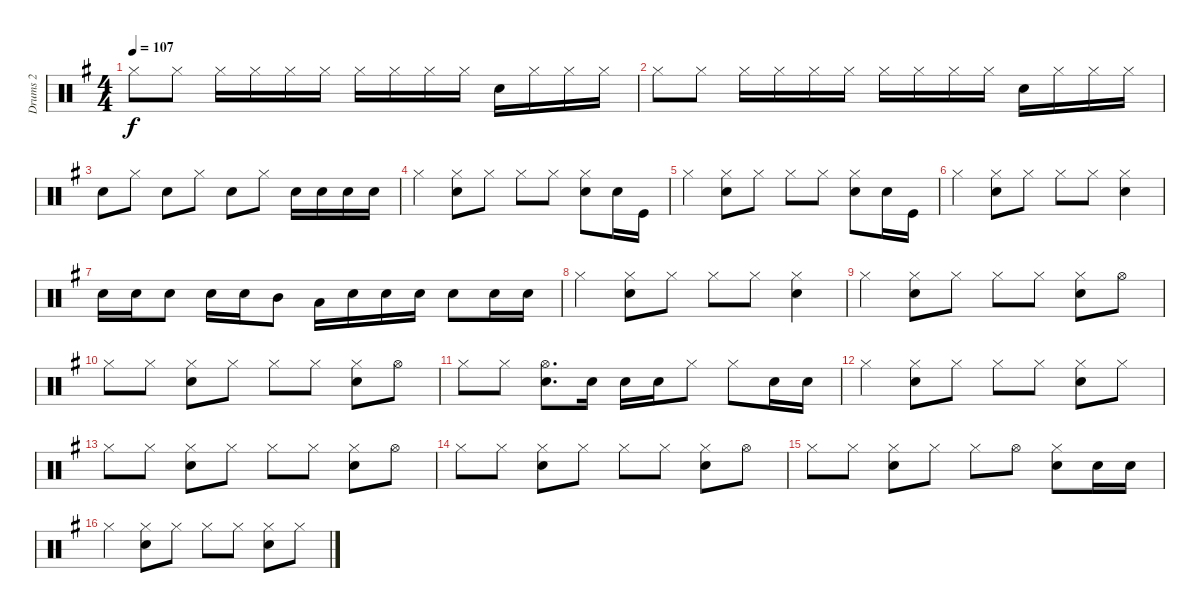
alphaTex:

\track ("Drums 2" "Drums 2") {instrument percussion}
\staff {score}
\articulation defaults
\ts (4 4)
\tempo 107
\clef neutral
\ks g "Hi-Hat (closed)".8{dy f} "Hi-Hat (closed)".8 "Hi-Hat (closed)".16 "Hi-Hat (closed)".16 "Hi-Hat (closed)".16 "Hi-Hat (closed)".16 "Hi-Hat (closed)".16 "Hi-Hat (closed)".16 "Hi-Hat (closed)".16 "Hi-Hat (closed)".16 "Snare (hit) 2".16 "Hi-Hat (closed)".16 "Hi-Hat (closed)".16 "Hi-Hat (closed)".16
|
"Hi-Hat (closed)".8 "Hi-Hat (closed)".8 "Hi-Hat (closed)".16 "Hi-Hat (closed)".16 "Hi-Hat (closed)".16 "Hi-Hat (closed)".16 "Hi-Hat (closed)".16 "Hi-Hat (closed)".16 "Hi-Hat (closed)".16 "Hi-Hat (closed)".16 "Snare (hit) 2".16 "Hi-Hat (closed)".16 "Hi-Hat (closed)".16 "Hi-Hat (closed)".16 |
"Snare (hit) 2".8 "Hi-Hat (closed)".8 "Snare (hit) 2".8 "Hi-Hat (closed)".8 "Snare (hit) 2".8 "Hi-Hat (closed)".8 "Snare (hit) 2".16 "Snare (hit) 2".16 "Snare (hit) 2".16 "Snare (hit) 2".16 |
"Hi-Hat (closed)".4 ("Hi-Hat (closed)" "Snare (hit) 2").8 "Hi-Hat (closed)".8 "Hi-Hat (closed)".8 "Hi-Hat (closed)".8 ("Hi-Hat (closed)" "Snare (hit) 2").8 "Snare (hit) 2".16 "Kick (hit)".16 |
"Hi-Hat (closed)".4 ("Hi-Hat (closed)" "Snare (hit) 2").8 "Hi-Hat (closed)".8 "Hi-Hat (closed)".8 "Hi-Hat (closed)".8 ("Hi-Hat (closed)" "Snare (hit) 2").8 "Snare (hit) 2".16 "Kick (hit)".16 |
"Hi-Hat (closed)".4 ("Hi-Hat (closed)" "Snare (hit) 2").8 "Hi-Hat (closed)".8 "Hi-Hat (closed)".8 "Hi-Hat (closed)".8 ("Hi-Hat (closed)" "Snare (hit) 2").4 |
"Snare (hit) 2".16 "Snare (hit) 2".16 "Snare (hit) 2".8 "Snare (hit) 2".16 "Snare (hit) 2".16 "Mid Tom (hit)".8 "Low Tom (hit)".16 "Snare (hit) 2".16 "Snare (hit) 2".16 "Snare (hit) 2".16 "Snare (hit) 2".8 "Snare (hit) 2".16 "Snare (hit) 2".16 |
"Hi-Hat (closed)".4 ("Hi-Hat (closed)" "Snare (hit) 2").8 "Hi-Hat (closed)".8 "Hi-Hat (closed)".8 "Hi-Hat (closed)".8 ("Hi-Hat (closed)" "Snare (hit) 2").4 |
"Hi-Hat (closed)".4 ("Hi-Hat (closed)" "Snare (hit) 2").8 "Hi-Hat (closed)".8 "Hi-Hat (closed)".8 "Hi-Hat (closed)".8 ("Hi-Hat (closed)" "Snare (hit) 2").8 "Hi-Hat (open)".8 |
"Hi-Hat (closed)".8 "Hi-Hat (closed)".8 ("Hi-Hat (closed)" "Snare (hit) 2").8 "Hi-Hat (closed)".8 "Hi-Hat (closed)".8 "Hi-Hat (closed)".8 ("Snare (hit) 2" "Hi-Hat (closed)").8 "Hi-Hat (open)".8 |
"Hi-Hat (closed)".8 "Hi-Hat (closed)".8 ("Hi-Hat (open)" "Snare (hit) 2").8{d} "Snare (hit) 2".16 "Snare (hit) 2".16 "Snare (hit) 2".16 "Hi-Hat (closed)".8 "Hi-Hat (closed)".8 "Snare (hit) 2".16 "Snare (hit) 2".16 |
"Hi-Hat (closed)".4 ("Hi-Hat (closed)" "Snare (hit) 2").8 "Hi-Hat (closed)".8 "Hi-Hat (closed)".8 "Hi-Hat (closed)".8 ("Hi-Hat (closed)" "Snare (hit) 2").8 "Hi-Hat (closed)".8 |
"Hi-Hat (closed)".8 "Hi-Hat (closed)".8 ("Hi-Hat (closed)" "Snare (hit) 2").8 "Hi-Hat (closed)".8 "Hi-Hat (closed)".8 "Hi-Hat (closed)".8 ("Hi-Hat (closed)" "Snare (hit) 2").8 "Hi-Hat (open)".8 |
"Hi-Hat (closed)".8 "Hi-Hat (closed)".8 ("Snare (hit) 2" "Hi-Hat (closed)").8 "Hi-Hat (closed)".8 "Hi-Hat (closed)".8 "Hi-Hat (closed)".8 ("Hi-Hat (closed)" "Snare (hit) 2").8 "Hi-Hat (open)".8 |
"Hi-Hat (closed)".8 "Hi-Hat (closed)".8 ("Hi-Hat (closed)" "Snare (hit) 2").8 "Hi-Hat (closed)".8 "Hi-Hat (closed)".8 "Hi-Hat (open)".8 ("Hi-Hat (closed)" "Snare (hit) 2").8 "Snare (hit) 2".16 "Snare (hit) 2".16 |
"Hi-Hat (closed)".4 ("Hi-Hat (closed)" "Snare (hit) 2").8 "Hi-Hat (closed)".8 "Hi-Hat (closed)".8 "Hi-Hat (closed)".8 ("Hi-Hat (closed)" "Snare (hit) 2").8 "Hi-Hat (closed)".8
